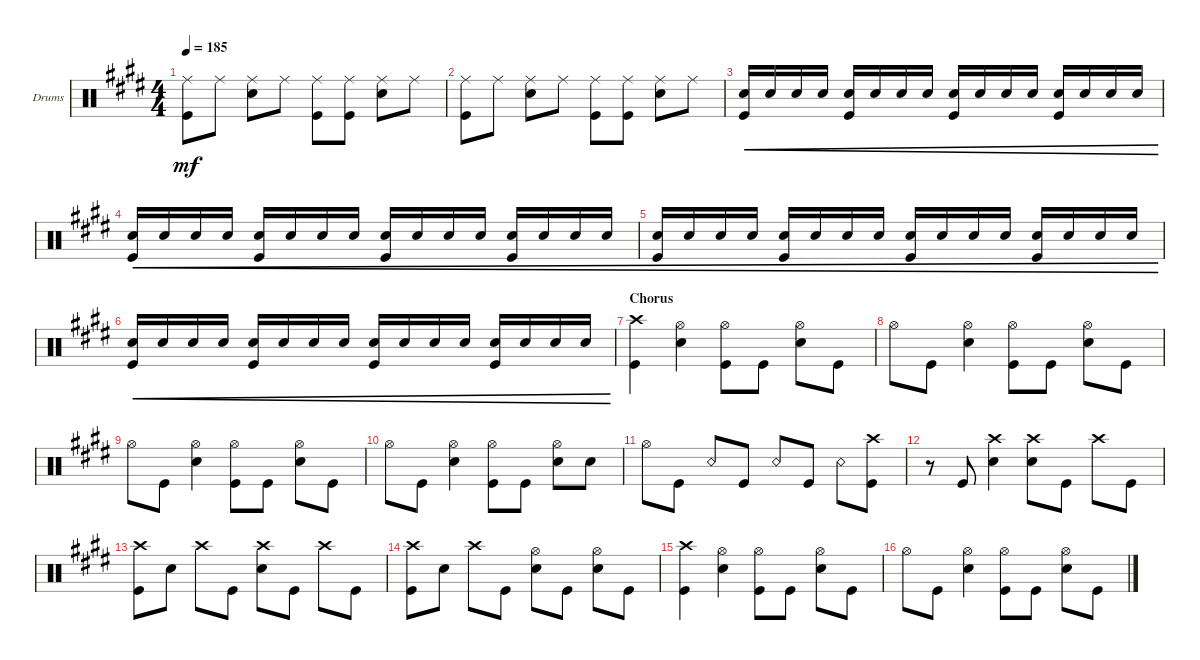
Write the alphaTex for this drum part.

\defaultSystemsLayout 4
\bracketExtendMode groupsimilarinstruments
\firstSystemTrackNameOrientation horizontal
\otherSystemsTrackNameOrientation horizontal
\track ("Drums" "Drums") {instrument percussion}
\staff {score}
\articulation defaults
\ts (4 4)
\tempo 185
\clef neutral
\ks e
("Ride (middle)" "Kick (hit)").8{dy mf} "Ride (middle)".8 ("Ride (middle)" "Snare (hit) 2").8 "Ride (middle)".8 ("Ride (middle)" "Kick (hit)").8 ("Ride (middle)" "Kick (hit)").8 ("Ride (middle)" "Snare (hit) 2").8 "Ride (middle)".8 |
("Ride (middle)" "Kick (hit)").8 "Ride (middle)".8 ("Ride (middle)" "Snare (hit) 2").8 "Ride (middle)".8 ("Ride (middle)" "Kick (hit)").8 ("Ride (middle)" "Kick (hit)").8 ("Ride (middle)" "Snare (hit) 2").8 "Ride (middle)".8 |
("Snare (hit) 2" "Kick (hit)").16{cre} "Snare (hit) 2".16{cre} "Snare (hit) 2".16{cre} "Snare (hit) 2".16{cre} ("Snare (hit) 2" "Kick (hit)").16{cre} "Snare (hit) 2".16{cre} "Snare (hit) 2".16{cre} "Snare (hit) 2".16{cre} ("Snare (hit) 2" "Kick (hit)").16{cre} "Snare (hit) 2".16{cre} "Snare (hit) 2".16{cre} "Snare (hit) 2".16{cre} ("Snare (hit) 2" "Kick (hit)").16{cre} "Snare (hit) 2".16{cre} "Snare (hit) 2".16{cre} "Snare (hit) 2".16{cre} |
("Snare (hit) 2" "Kick (hit)").16{cre} "Snare (hit) 2".16{cre} "Snare (hit) 2".16{cre} "Snare (hit) 2".16{cre} ("Snare (hit) 2" "Kick (hit)").16{cre} "Snare (hit) 2".16{cre} "Snare (hit) 2".16{cre} "Snare (hit) 2".16{cre} ("Snare (hit) 2" "Kick (hit)").16{cre} "Snare (hit) 2".16{cre} "Snare (hit) 2".16{cre} "Snare (hit) 2".16{cre} ("Snare (hit) 2" "Kick (hit)").16{cre} "Snare (hit) 2".16{cre} "Snare (hit) 2".16{cre} "Snare (hit) 2".16{cre} |
("Snare (hit) 2" "Kick (hit)").16{cre} "Snare (hit) 2".16{cre} "Snare (hit) 2".16{cre} "Snare (hit) 2".16{cre} ("Snare (hit) 2" "Kick (hit)").16{cre} "Snare (hit) 2".16{cre} "Snare (hit) 2".16{cre} "Snare (hit) 2".16{cre} ("Snare (hit) 2" "Kick (hit)").16{cre} "Snare (hit) 2".16{cre} "Snare (hit) 2".16{cre} "Snare (hit) 2".16{cre} ("Snare (hit) 2" "Kick (hit)").16{cre} "Snare (hit) 2".16{cre} "Snare (hit) 2".16{cre} "Snare (hit) 2".16{cre} |
("Snare (hit) 2" "Kick (hit)").16{cre} "Snare (hit) 2".16{cre} "Snare (hit) 2".16{cre} "Snare (hit) 2".16{cre} ("Snare (hit) 2" "Kick (hit)").16{cre} "Snare (hit) 2".16{cre} "Snare (hit) 2".16{cre} "Snare (hit) 2".16{cre} ("Snare (hit) 2" "Kick (hit)").16{cre} "Snare (hit) 2".16{cre} "Snare (hit) 2".16{cre} "Snare (hit) 2".16{cre} ("Snare (hit) 2" "Kick (hit)").16{cre} "Snare (hit) 2".16{cre} "Snare (hit) 2".16{cre} "Snare (hit) 2".16{cre} |
\section ("" "Chorus")
("Kick (hit)" "Crash high (hit)").4 ("Snare (hit) 2" "Hi-Hat (open)").4 ("Kick (hit)" "Hi-Hat (open)").8 "Kick (hit)".8 ("Snare (hit) 2" "Hi-Hat (open)").8 "Kick (hit)".8 |
"Hi-Hat (open)".8 "Kick (hit)".8 ("Snare (hit) 2" "Hi-Hat (open)").4 ("Kick (hit)" "Hi-Hat (open)").8 "Kick (hit)".8 ("Snare (hit) 2" "Hi-Hat (open)").8 "Kick (hit)".8 |
"Hi-Hat (open)".8 "Kick (hit)".8 ("Snare (hit) 2" "Hi-Hat (open)").4 ("Kick (hit)" "Hi-Hat (open)").8 "Kick (hit)".8 ("Snare (hit) 2" "Hi-Hat (open)").8 "Kick (hit)".8 |
"Hi-Hat (open)".8 "Kick (hit)".8 ("Snare (hit) 2" "Hi-Hat (open)").4 ("Kick (hit)" "Hi-Hat (open)").8 "Kick (hit)".8 ("Snare (hit) 2" "Hi-Hat (open)").8 "Snare (hit) 2".8 |
"Hi-Hat (open)".8 "Kick (hit)".8 "Snare (rim shot)".8 "Kick (hit)".8 "Snare (rim shot)".8 "Kick (hit)".8 "Snare (rim shot)".8 ("Kick (hit)" "Crash high (hit)").8 |
r.8 "Kick (hit)".8 ("Snare (hit) 2" "Crash high (hit)").4 ("Snare (hit) 2" "Crash high (hit)").8 "Kick (hit)".8 "Crash high (hit)".8 "Kick (hit)".8 |
("Kick (hit)" "Crash high (hit)").8 "Snare (hit) 2".8 "Crash high (hit)".8 "Kick (hit)".8 ("Crash high (hit)" "Snare (hit) 2").8 "Kick (hit)".8 "Crash high (hit)".8 "Kick (hit)".8 |
("Kick (hit)" "Crash high (hit)").8 "Snare (hit) 2".8 "Crash high (hit)".8 "Kick (hit)".8 ("Snare (hit) 2" "Hi-Hat (open)").8 "Kick (hit)".8 ("Snare (hit) 2" "Hi-Hat (open)").8 "Kick (hit)".8 |
("Kick (hit)" "Crash high (hit)").4 ("Snare (hit) 2" "Hi-Hat (open)").4 ("Kick (hit)" "Hi-Hat (open)").8 "Kick (hit)".8 ("Snare (hit) 2" "Hi-Hat (open)").8 "Kick (hit)".8 |
"Hi-Hat (open)".8 "Kick (hit)".8 ("Snare (hit) 2" "Hi-Hat (open)").4 ("Kick (hit)" "Hi-Hat (open)").8 "Kick (hit)".8 ("Snare (hit) 2" "Hi-Hat (open)").8 "Kick (hit)".8
